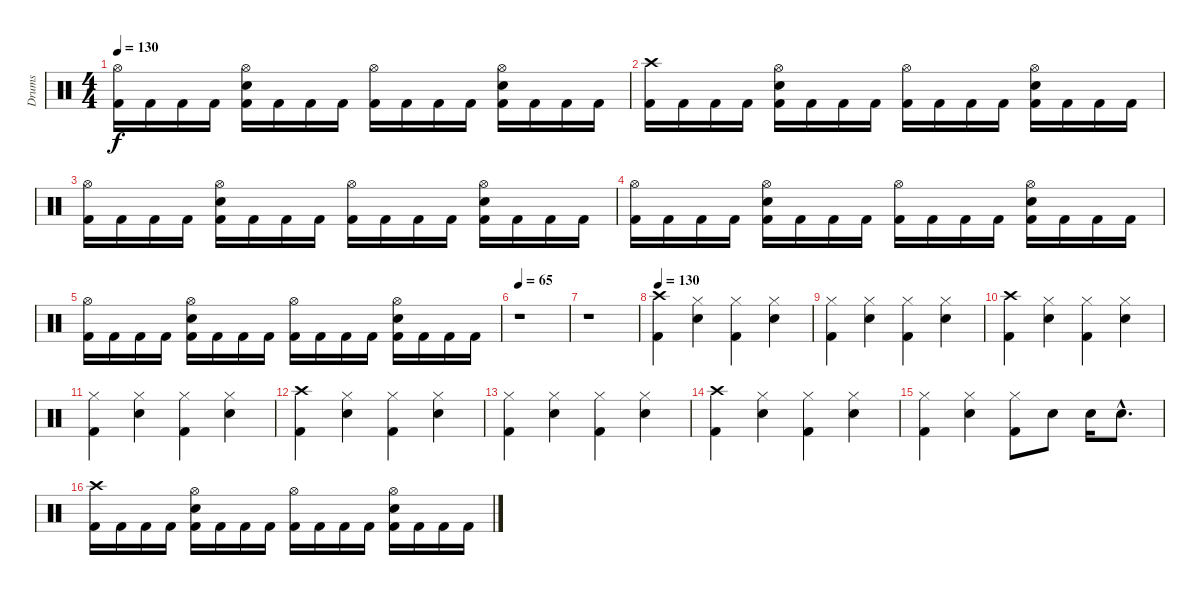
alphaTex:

\track ("Drums" "Drums") {instrument percussion}
\staff {score}
\articulation defaults
\ts (4 4)
\tempo 130
\clef neutral
\ks c
("Hi-Hat (open)" "Kick (hit) 2").16{dy f} "Kick (hit) 2".16 "Kick (hit) 2".16 "Kick (hit) 2".16 ("Hi-Hat (open)" "Electric Snare (hit)" "Kick (hit) 2").16 "Kick (hit) 2".16 "Kick (hit) 2".16 "Kick (hit) 2".16 ("Hi-Hat (open)" "Kick (hit) 2").16 "Kick (hit) 2".16 "Kick (hit) 2".16 "Kick (hit) 2".16 ("Hi-Hat (open)" "Electric Snare (hit)" "Kick (hit) 2").16 "Kick (hit) 2".16 "Kick (hit) 2".16 "Kick (hit) 2".16 |
("Crash high (hit)" "Kick (hit) 2").16 "Kick (hit) 2".16 "Kick (hit) 2".16 "Kick (hit) 2".16 ("Hi-Hat (open)" "Electric Snare (hit)" "Kick (hit) 2").16 "Kick (hit) 2".16 "Kick (hit) 2".16 "Kick (hit) 2".16 ("Hi-Hat (open)" "Kick (hit) 2").16 "Kick (hit) 2".16 "Kick (hit) 2".16 "Kick (hit) 2".16 ("Hi-Hat (open)" "Electric Snare (hit)" "Kick (hit) 2").16 "Kick (hit) 2".16 "Kick (hit) 2".16 "Kick (hit) 2".16 |
("Hi-Hat (open)" "Kick (hit) 2").16 "Kick (hit) 2".16 "Kick (hit) 2".16 "Kick (hit) 2".16 ("Hi-Hat (open)" "Electric Snare (hit)" "Kick (hit) 2").16 "Kick (hit) 2".16 "Kick (hit) 2".16 "Kick (hit) 2".16 ("Hi-Hat (open)" "Kick (hit) 2").16 "Kick (hit) 2".16 "Kick (hit) 2".16 "Kick (hit) 2".16 ("Hi-Hat (open)" "Electric Snare (hit)" "Kick (hit) 2").16 "Kick (hit) 2".16 "Kick (hit) 2".16 "Kick (hit) 2".16 |
("Hi-Hat (open)" "Kick (hit) 2").16 "Kick (hit) 2".16 "Kick (hit) 2".16 "Kick (hit) 2".16 ("Hi-Hat (open)" "Electric Snare (hit)" "Kick (hit) 2").16 "Kick (hit) 2".16 "Kick (hit) 2".16 "Kick (hit) 2".16 ("Hi-Hat (open)" "Kick (hit) 2").16 "Kick (hit) 2".16 "Kick (hit) 2".16 "Kick (hit) 2".16 ("Hi-Hat (open)" "Electric Snare (hit)" "Kick (hit) 2").16 "Kick (hit) 2".16 "Kick (hit) 2".16 "Kick (hit) 2".16 |
("Hi-Hat (open)" "Kick (hit) 2").16 "Kick (hit) 2".16 "Kick (hit) 2".16 "Kick (hit) 2".16 ("Hi-Hat (open)" "Electric Snare (hit)" "Kick (hit) 2").16 "Kick (hit) 2".16 "Kick (hit) 2".16 "Kick (hit) 2".16 ("Hi-Hat (open)" "Kick (hit) 2").16 "Kick (hit) 2".16 "Kick (hit) 2".16 "Kick (hit) 2".16 ("Hi-Hat (open)" "Electric Snare (hit)" "Kick (hit) 2").16 "Kick (hit) 2".16 "Kick (hit) 2".16 "Kick (hit) 2".16 |
\tempo 65
r.1 |
r.1 |
\tempo 130
("Crash high (hit)" "Kick (hit) 2").4 ("Hi-Hat (closed)" "Electric Snare (hit)").4 ("Hi-Hat (closed)" "Kick (hit) 2").4 ("Hi-Hat (closed)" "Electric Snare (hit)").4 |
("Hi-Hat (closed)" "Kick (hit) 2").4 ("Hi-Hat (closed)" "Electric Snare (hit)").4 ("Hi-Hat (closed)" "Kick (hit) 2").4 ("Hi-Hat (closed)" "Electric Snare (hit)").4 |
("Crash high (hit)" "Kick (hit) 2").4 ("Hi-Hat (closed)" "Electric Snare (hit)").4 ("Hi-Hat (closed)" "Kick (hit) 2").4 ("Hi-Hat (closed)" "Electric Snare (hit)").4 |
("Hi-Hat (closed)" "Kick (hit) 2").4 ("Hi-Hat (closed)" "Electric Snare (hit)").4 ("Hi-Hat (closed)" "Kick (hit) 2").4 ("Hi-Hat (closed)" "Electric Snare (hit)").4 |
("Crash high (hit)" "Kick (hit) 2").4 ("Hi-Hat (closed)" "Electric Snare (hit)").4 ("Hi-Hat (closed)" "Kick (hit) 2").4 ("Hi-Hat (closed)" "Electric Snare (hit)").4 |
("Hi-Hat (closed)" "Kick (hit) 2").4 ("Hi-Hat (closed)" "Electric Snare (hit)").4 ("Hi-Hat (closed)" "Kick (hit) 2").4 ("Hi-Hat (closed)" "Electric Snare (hit)").4 |
("Crash high (hit)" "Kick (hit) 2").4 ("Hi-Hat (closed)" "Electric Snare (hit)").4 ("Hi-Hat (closed)" "Kick (hit) 2").4 ("Hi-Hat (closed)" "Electric Snare (hit)").4 |
("Hi-Hat (closed)" "Kick (hit) 2").4 ("Hi-Hat (closed)" "Electric Snare (hit)").4 ("Hi-Hat (closed)" "Kick (hit) 2").8 "Electric Snare (hit)".8 "Electric Snare (hit)".16 "Electric Snare (hit)"{hac}.8{d} |
("Crash high (hit)" "Kick (hit) 2").16 "Kick (hit) 2".16 "Kick (hit) 2".16 "Kick (hit) 2".16 ("Hi-Hat (open)" "Electric Snare (hit)" "Kick (hit) 2").16 "Kick (hit) 2".16 "Kick (hit) 2".16 "Kick (hit) 2".16 ("Hi-Hat (open)" "Kick (hit) 2").16 "Kick (hit) 2".16 "Kick (hit) 2".16 "Kick (hit) 2".16 ("Hi-Hat (open)" "Electric Snare (hit)" "Kick (hit) 2").16 "Kick (hit) 2".16 "Kick (hit) 2".16 "Kick (hit) 2".16
